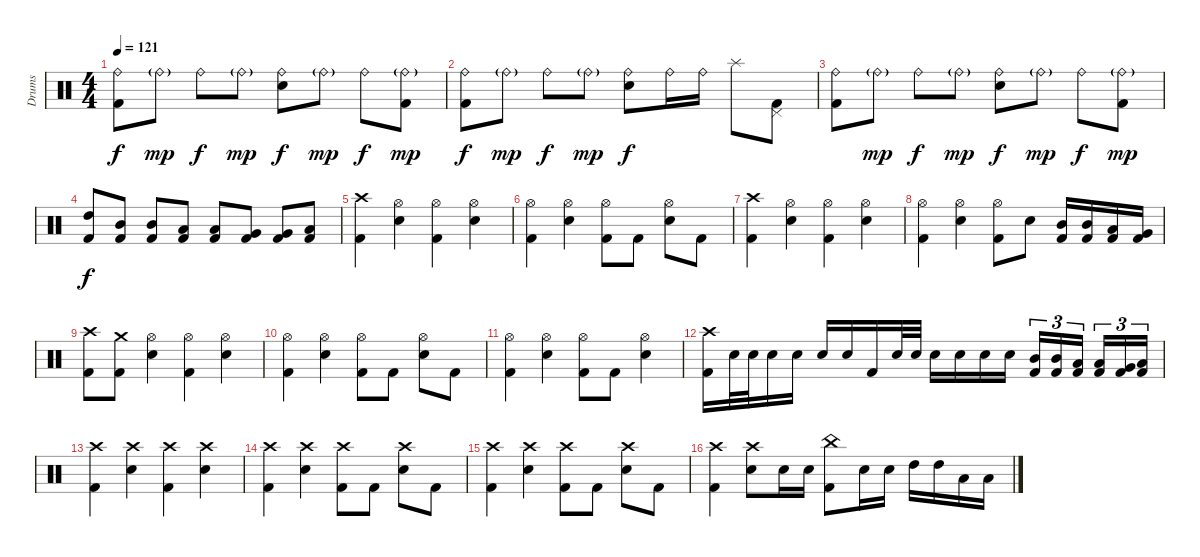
\track ("Drums" "Drums") {instrument percussion}
\staff {score}
\articulation defaults
\ts (4 4)
\tempo 121
\clef neutral
\ks c
("Ride (bell)" "Kick (hit) 2").8{dy f} "Ride (bell)"{g}.8{dy mp} "Ride (bell)".8{dy f} "Ride (bell)"{g}.8{dy mp} ("Ride (bell)" "Electric Snare (hit)").8{dy f} "Ride (bell)"{g}.8{dy mp} "Ride (bell)".8{dy f} ("Ride (bell)"{g} "Kick (hit) 2").8{dy mp} |
("Ride (bell)" "Kick (hit) 2").8{dy f} "Ride (bell)"{g}.8{dy mp} "Ride (bell)".8{dy f} "Ride (bell)"{g}.8{dy mp} ("Ride (bell)" "Electric Snare (hit)").8{dy f} "Ride (bell)".16 "Ride (bell)".16 "Splash (hit)".8 ("Pedal Hi-Hat (hit)" "Kick (hit) 2").8 |
("Ride (bell)" "Kick (hit) 2").8 "Ride (bell)"{g}.8{dy mp} "Ride (bell)".8{dy f} "Ride (bell)"{g}.8{dy mp} ("Ride (bell)" "Electric Snare (hit)").8{dy f} "Ride (bell)"{g}.8{dy mp} "Ride (bell)".8{dy f} ("Ride (bell)"{g} "Kick (hit) 2").8{dy mp} |
("High Tom (hit)" "Kick (hit) 2").8{dy f} ("Mid Tom (hit)" "Kick (hit) 2").8 ("Mid Tom (hit)" "Kick (hit) 2").8 ("Low Tom (hit)" "Kick (hit) 2").8 ("Low Tom (hit)" "Kick (hit) 2").8 ("Very Low Tom (hit)" "Kick (hit) 2").8 ("Very Low Tom (hit)" "Kick (hit) 2").8 ("Low Floor Tom (hit)" "Kick (hit) 2").8 |
("Crash high (hit)" "Kick (hit) 2").4 ("Hi-Hat (open)" "Electric Snare (hit)").4 ("Hi-Hat (open)" "Kick (hit) 2").4 ("Hi-Hat (open)" "Electric Snare (hit)").4 |
("Hi-Hat (open)" "Kick (hit) 2").4 ("Hi-Hat (open)" "Electric Snare (hit)").4 ("Hi-Hat (open)" "Kick (hit) 2").8 "Kick (hit) 2".8 ("Hi-Hat (open)" "Electric Snare (hit)").8 "Kick (hit) 2".8 |
("Crash high (hit)" "Kick (hit) 2").4 ("Hi-Hat (open)" "Electric Snare (hit)").4 ("Hi-Hat (open)" "Kick (hit) 2").4 ("Hi-Hat (open)" "Electric Snare (hit)").4 |
("Hi-Hat (open)" "Kick (hit) 2").4 ("Hi-Hat (open)" "Electric Snare (hit)").4 ("Hi-Hat (open)" "Kick (hit) 2").8 "Electric Snare (hit)".8 ("Mid Tom (hit)" "Kick (hit) 2").16 ("Mid Tom (hit)" "Kick (hit) 2").16 ("Low Tom (hit)" "Kick (hit) 2").16 ("Very Low Tom (hit)" "Kick (hit) 2").16 |
("Crash high (hit)" "Kick (hit) 2").8 ("Crash medium (hit)" "Kick (hit) 2").8 ("Hi-Hat (open)" "Electric Snare (hit)").4 ("Hi-Hat (open)" "Kick (hit) 2").4 ("Hi-Hat (open)" "Electric Snare (hit)").4 |
("Hi-Hat (open)" "Kick (hit) 2").4 ("Hi-Hat (open)" "Electric Snare (hit)").4 ("Hi-Hat (open)" "Kick (hit) 2").8 "Kick (hit) 2".8 ("Hi-Hat (open)" "Electric Snare (hit)").8 "Kick (hit) 2".8 |
("Hi-Hat (open)" "Kick (hit) 2").4 ("Hi-Hat (open)" "Electric Snare (hit)").4 ("Hi-Hat (open)" "Kick (hit) 2").8 "Kick (hit) 2".8 ("Hi-Hat (open)" "Electric Snare (hit)").4 |
("Crash high (hit)" "Kick (hit) 2").16 "Electric Snare (hit)".32 "Electric Snare (hit)".32 "Electric Snare (hit)".16 "Electric Snare (hit)".16 "Electric Snare (hit)".16 "Electric Snare (hit)".16 "Kick (hit) 2".16 "Electric Snare (hit)".32 "Electric Snare (hit)".32 "Electric Snare (hit)".16 "Electric Snare (hit)".16 "Electric Snare (hit)".16 "Electric Snare (hit)".16 ("Mid Tom (hit)" "Kick (hit) 2").16{tu (3 2)} ("Mid Tom (hit)" "Kick (hit) 2").16{tu (3 2)} ("Low Tom (hit)" "Kick (hit) 2").16{tu (3 2)} ("Low Tom (hit)" "Kick (hit) 2").16{tu (3 2)} ("Very Low Tom (hit)" "Kick (hit) 2").16{tu (3 2)} ("Low Floor Tom (hit)" "Kick (hit) 2").16{tu (3 2)} |
("Crash high (hit)" "Kick (hit) 2").4 ("Crash high (hit)" "Electric Snare (hit)").4 ("Crash high (hit)" "Kick (hit) 2").4 ("Crash high (hit)" "Electric Snare (hit)").4 |
("Crash high (hit)" "Kick (hit) 2").4 ("Crash high (hit)" "Electric Snare (hit)").4 ("Crash high (hit)" "Kick (hit) 2").8 "Kick (hit) 2".8 ("Crash high (hit)" "Electric Snare (hit)").8 "Kick (hit) 2".8 |
("Crash high (hit)" "Kick (hit) 2").4 ("Crash high (hit)" "Electric Snare (hit)").4 ("Crash high (hit)" "Kick (hit) 2").8 "Kick (hit) 2".8 ("Crash high (hit)" "Electric Snare (hit)").8 "Kick (hit) 2".8 |
("Crash high (hit)" "Kick (hit) 2").4 ("Crash high (hit)" "Electric Snare (hit)").8 "Electric Snare (hit)".16 "Electric Snare (hit)".16 ("China (hit)" "Kick (hit) 2").8 "Electric Snare (hit)".16 "Electric Snare (hit)".16 "High Tom (hit)".16 "High Tom (hit)".16 "Low Tom (hit)".16 "Low Tom (hit)".16
